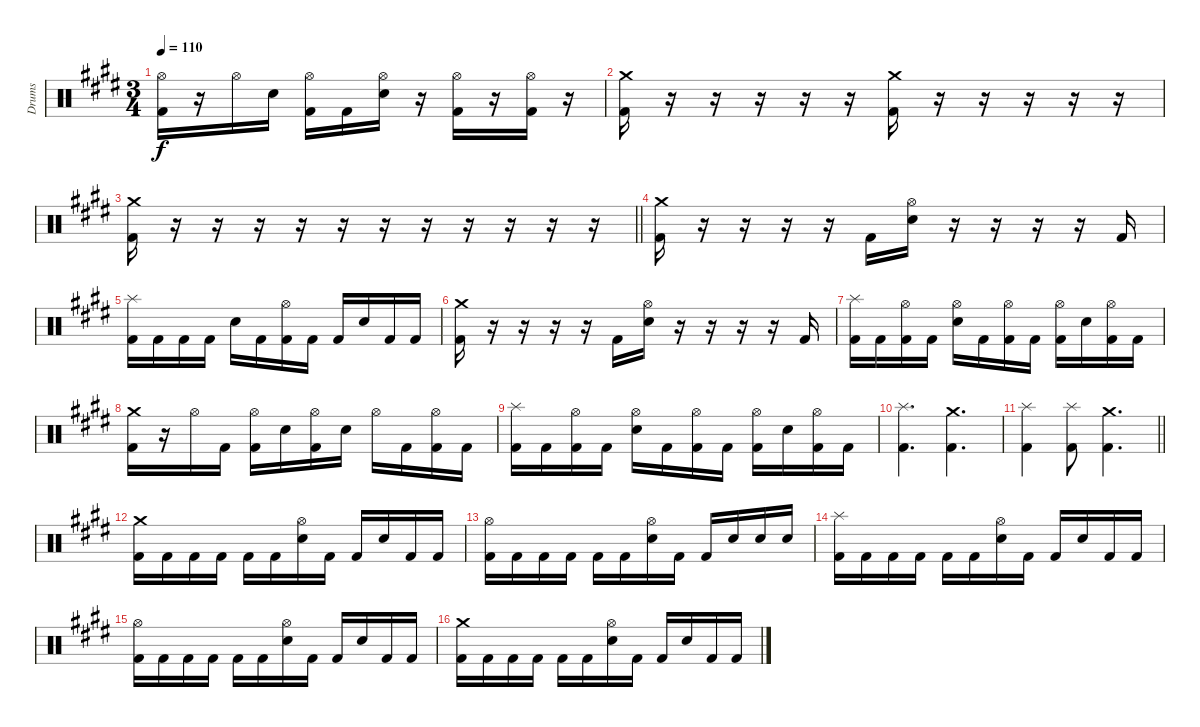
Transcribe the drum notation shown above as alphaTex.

\track ("Drums" "Drums") {instrument percussion}
\staff {score}
\articulation defaults
\ts (3 4)
\tempo 110
\clef neutral
\ks c#minor
("Kick (hit) 2" "Hi-Hat (open)").16{dy f} r.16 "Hi-Hat (open)".16 "Electric Snare (hit)".16 ("Kick (hit) 2" "Hi-Hat (open)").16 "Kick (hit) 2".16 ("Electric Snare (hit)" "Hi-Hat (open)").16 r.16 ("Kick (hit) 2" "Hi-Hat (open)").16 r.16 ("Kick (hit) 2" "Hi-Hat (open)").16 r.16 |
("Kick (hit) 2" "Crash medium (hit)").16 r.16 r.16 r.16 r.16 r.16 ("Kick (hit) 2" "Crash medium (hit)").16 r.16 r.16 r.16 r.16 r.16 |
\barLineRight lightlight
("Kick (hit) 2" "Crash medium (hit)").16 r.16 r.16 r.16 r.16 r.16 r.16 r.16 r.16 r.16 r.16 r.16 |
("Kick (hit) 2" "Crash medium (hit)").16 r.16 r.16 r.16 r.16 "Kick (hit) 2".16 ("Electric Snare (hit)" "Hi-Hat (open)").16 r.16 r.16 r.16 r.16 "Kick (hit) 2".16 |
("Kick (hit) 2" "Splash (hit)").16 "Kick (hit) 2".16 "Kick (hit) 2".16 "Kick (hit) 2".16 "Electric Snare (hit)".16 "Kick (hit) 2".16 ("Kick (hit) 2" "Hi-Hat (open)").16 "Kick (hit) 2".16 "Kick (hit) 2".16 "Electric Snare (hit)".16 "Kick (hit) 2".16 "Kick (hit) 2".16 |
("Kick (hit) 2" "Crash medium (hit)").16 r.16 r.16 r.16 r.16 "Kick (hit) 2".16 ("Electric Snare (hit)" "Hi-Hat (open)").16 r.16 r.16 r.16 r.16 "Kick (hit) 2".16 |
("Kick (hit) 2" "Splash (hit)").16 "Kick (hit) 2".16 ("Kick (hit) 2" "Hi-Hat (open)").16 "Kick (hit) 2".16 ("Electric Snare (hit)" "Hi-Hat (open)").16 "Kick (hit) 2".16 ("Kick (hit) 2" "Hi-Hat (open)").16 "Kick (hit) 2".16 ("Kick (hit) 2" "Hi-Hat (open)").16 "Electric Snare (hit)".16 ("Kick (hit) 2" "Hi-Hat (open)").16 "Kick (hit) 2".16 |
("Kick (hit) 2" "Crash medium (hit)").16 r.16 "Hi-Hat (open)".16 "Kick (hit) 2".16 ("Kick (hit) 2" "Hi-Hat (open)").16 "Electric Snare (hit)".16 ("Kick (hit) 2" "Hi-Hat (open)").16 "Electric Snare (hit)".16 "Hi-Hat (open)".16 "Kick (hit) 2".16 ("Kick (hit) 2" "Hi-Hat (open)").16 "Kick (hit) 2".16 |
("Kick (hit) 2" "Splash (hit)").16 "Kick (hit) 2".16 ("Kick (hit) 2" "Hi-Hat (open)").16 "Kick (hit) 2".16 ("Electric Snare (hit)" "Hi-Hat (open)").16 "Kick (hit) 2".16 ("Kick (hit) 2" "Hi-Hat (open)").16 "Kick (hit) 2".16 ("Kick (hit) 2" "Hi-Hat (open)").16 "Electric Snare (hit)".16 ("Kick (hit) 2" "Hi-Hat (open)").16 "Kick (hit) 2".16 |
("Kick (hit) 2" "Splash (hit)").4{d} ("Kick (hit) 2" "Crash medium (hit)").4{d} |
\barLineRight lightlight
("Kick (hit) 2" "Splash (hit)").4 ("Kick (hit) 2" "Splash (hit)").8 ("Kick (hit) 2" "Crash medium (hit)").4{d} |
("Kick (hit) 2" "Crash medium (hit)").16 "Kick (hit) 2".16 "Kick (hit) 2".16 "Kick (hit) 2".16 "Kick (hit) 2".16 "Kick (hit) 2".16 ("Electric Snare (hit)" "Hi-Hat (open)").16 "Kick (hit) 2".16 "Kick (hit) 2".16 "Electric Snare (hit)".16 "Kick (hit) 2".16 "Kick (hit) 2".16 |
("Kick (hit) 2" "Hi-Hat (open)").16 "Kick (hit) 2".16 "Kick (hit) 2".16 "Kick (hit) 2".16 "Kick (hit) 2".16 "Kick (hit) 2".16 ("Electric Snare (hit)" "Hi-Hat (open)").16 "Kick (hit) 2".16 "Kick (hit) 2".16 "Electric Snare (hit)".16 "Electric Snare (hit)".16 "Electric Snare (hit)".16 |
("Kick (hit) 2" "Splash (hit)").16 "Kick (hit) 2".16 "Kick (hit) 2".16 "Kick (hit) 2".16 "Kick (hit) 2".16 "Kick (hit) 2".16 ("Electric Snare (hit)" "Hi-Hat (open)").16 "Kick (hit) 2".16 "Kick (hit) 2".16 "Electric Snare (hit)".16 "Kick (hit) 2".16 "Kick (hit) 2".16 |
("Kick (hit) 2" "Hi-Hat (open)").16 "Kick (hit) 2".16 "Kick (hit) 2".16 "Kick (hit) 2".16 "Kick (hit) 2".16 "Kick (hit) 2".16 ("Electric Snare (hit)" "Hi-Hat (open)").16 "Kick (hit) 2".16 "Kick (hit) 2".16 "Electric Snare (hit)".16 "Kick (hit) 2".16 "Kick (hit) 2".16 |
("Kick (hit) 2" "Crash medium (hit)").16 "Kick (hit) 2".16 "Kick (hit) 2".16 "Kick (hit) 2".16 "Kick (hit) 2".16 "Kick (hit) 2".16 ("Electric Snare (hit)" "Hi-Hat (open)").16 "Kick (hit) 2".16 "Kick (hit) 2".16 "Electric Snare (hit)".16 "Kick (hit) 2".16 "Kick (hit) 2".16
